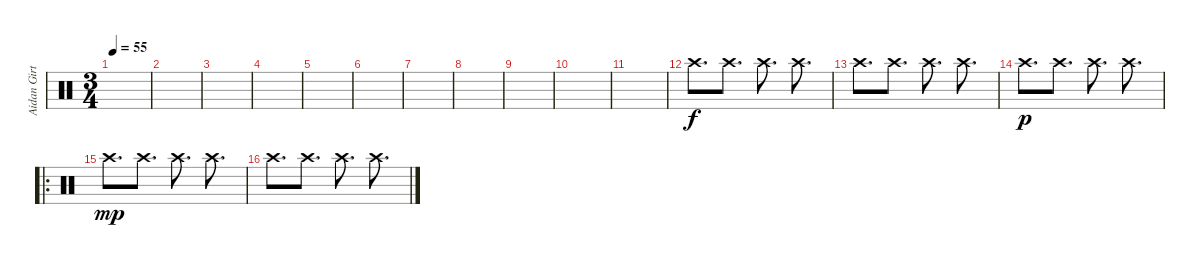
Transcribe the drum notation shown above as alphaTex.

\track ("Aidan Girt" "Aidan Girt") {instrument percussion}
\staff {score}
\articulation defaults
\ts (3 4)
\tempo 55
\clef neutral
\ks c
|
|
|
|
|
|
|
|
|
|
|
"Crash high (hit)".8{d} "Crash high (hit)".8{d} "Crash high (hit)".8{d} "Crash high (hit)".8{d} |
"Crash high (hit)".8{d} "Crash high (hit)".8{d} "Crash high (hit)".8{d} "Crash high (hit)".8{d} |
"Crash high (hit)".8{d dy p} "Crash high (hit)".8{d} "Crash high (hit)".8{d} "Crash high (hit)".8{d} |
\ro "Crash high (hit)".8{d dy mp} "Crash high (hit)".8{d} "Crash high (hit)".8{d} "Crash high (hit)".8{d}
|
"Crash high (hit)".8{d} "Crash high (hit)".8{d} "Crash high (hit)".8{d} "Crash high (hit)".8{d}
